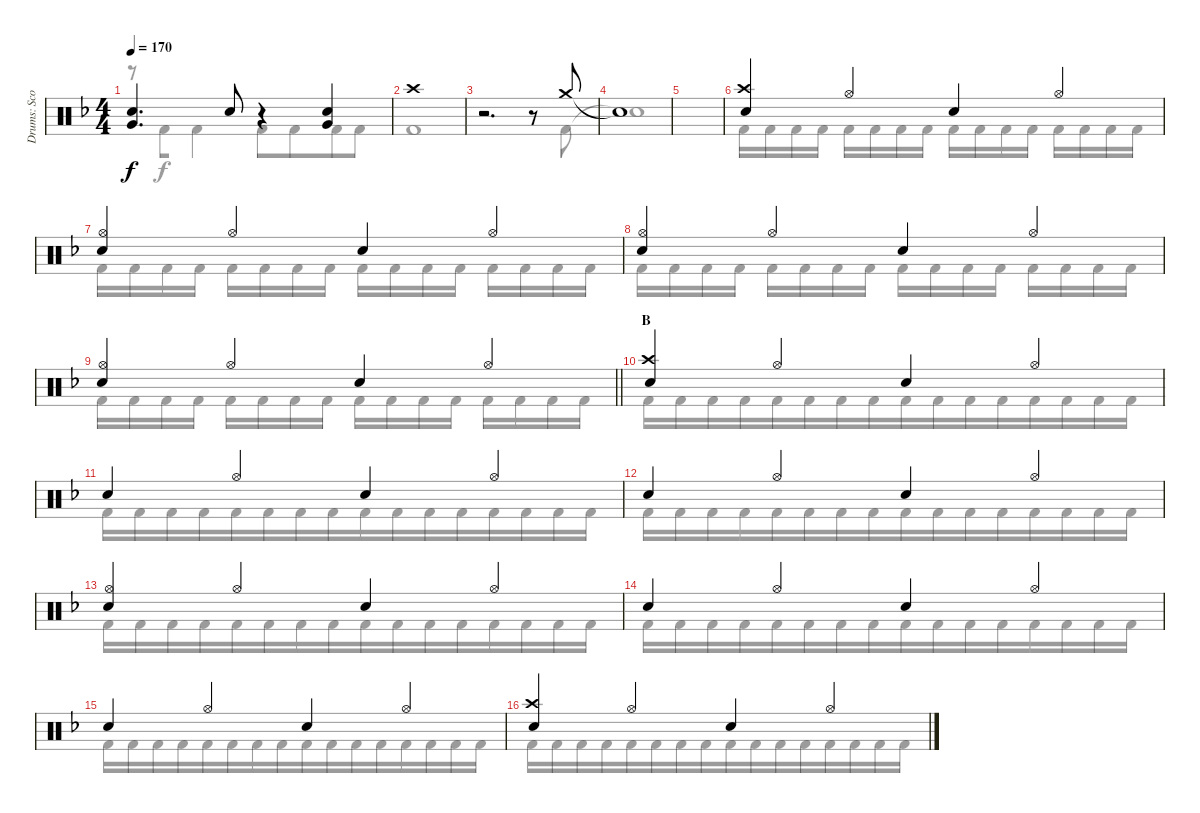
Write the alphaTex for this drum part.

\track ("Drums: Scott" "Drums: Sco") {instrument percussion}
\staff {score}
\articulation defaults
\voice
\ts (4 4)
\tempo 170
\clef neutral
\ks f
("Snare (hit) 2" "Very Low Tom (hit)").4{d dy f} "Snare (hit) 2".8 r.4 ("Snare (hit) 2" "Very Low Tom (hit)").4 |
"Crash high (hit)".1 |
r.2{d} r.8 "Crash medium (hit)".8 |
"Snare (hit)"{t}.1 |
|
("Crash high (hit)" "Snare (hit) 2").4 "Hi-Hat (open)".4 "Snare (hit) 2".4 "Hi-Hat (open)".4 |
("Hi-Hat (open)" "Snare (hit) 2").4 "Hi-Hat (open)".4 "Snare (hit) 2".4 "Hi-Hat (open)".4 |
("Hi-Hat (open)" "Snare (hit) 2").4 "Hi-Hat (open)".4 "Snare (hit) 2".4 "Hi-Hat (open)".4 |
\barLineRight lightlight
("Hi-Hat (open)" "Snare (hit) 2").4 "Hi-Hat (open)".4 "Snare (hit) 2".4 "Hi-Hat (open)".4 |
\section ("" "B")
("Crash high (hit)" "Snare (hit) 2").4 "Hi-Hat (open)".4 "Snare (hit) 2".4 "Hi-Hat (open)".4 |
"Snare (hit) 2".4 "Hi-Hat (open)".4 "Snare (hit) 2".4 "Hi-Hat (open)".4 |
"Snare (hit) 2".4 "Hi-Hat (open)".4 "Snare (hit) 2".4 "Hi-Hat (open)".4 |
("Hi-Hat (open)" "Snare (hit) 2").4 "Hi-Hat (open)".4 "Snare (hit) 2".4 "Hi-Hat (open)".4 |
"Snare (hit) 2".4 "Hi-Hat (open)".4 "Snare (hit) 2".4 "Hi-Hat (open)".4 |
"Snare (hit) 2".4 "Hi-Hat (open)".4 "Snare (hit) 2".4 "Hi-Hat (open)".4 |
("Crash high (hit)" "Snare (hit) 2").4 "Hi-Hat (open)".4 "Snare (hit) 2".4 "Hi-Hat (open)".4
\voice
\clef neutral
\ottava regular
\simile none
\ks f
r.8{dy f} "Kick (hit) 2".8{beam merge} "Kick (hit) 2".4 "Kick (hit) 2".8 "Kick (hit) 2".8{beam merge} "Kick (hit) 2".8 "Kick (hit) 2".8 |
"Kick (hit) 2".1 |
r.2{d} r.8 "Kick (hit) 2".8 |
"Snare (hit)"{t}.1 |
|
"Kick (hit) 2".16 "Kick (hit) 2".16{beam merge} "Kick (hit) 2".16 "Kick (hit) 2".16 "Kick (hit) 2".16 "Kick (hit) 2".16{beam merge} "Kick (hit) 2".16 "Kick (hit) 2".16 "Kick (hit) 2".16 "Kick (hit) 2".16{beam merge} "Kick (hit) 2".16 "Kick (hit) 2".16 "Kick (hit) 2".16 "Kick (hit) 2".16{beam merge} "Kick (hit) 2".16 "Kick (hit) 2".16 |
"Kick (hit) 2".16 "Kick (hit) 2".16{beam merge} "Kick (hit) 2".16 "Kick (hit) 2".16 "Kick (hit) 2".16 "Kick (hit) 2".16{beam merge} "Kick (hit) 2".16 "Kick (hit) 2".16 "Kick (hit) 2".16 "Kick (hit) 2".16{beam merge} "Kick (hit) 2".16 "Kick (hit) 2".16 "Kick (hit) 2".16 "Kick (hit) 2".16{beam merge} "Kick (hit) 2".16 "Kick (hit) 2".16 |
"Kick (hit) 2".16 "Kick (hit) 2".16{beam merge} "Kick (hit) 2".16 "Kick (hit) 2".16 "Kick (hit) 2".16 "Kick (hit) 2".16{beam merge} "Kick (hit) 2".16 "Kick (hit) 2".16 "Kick (hit) 2".16 "Kick (hit) 2".16{beam merge} "Kick (hit) 2".16 "Kick (hit) 2".16 "Kick (hit) 2".16 "Kick (hit) 2".16{beam merge} "Kick (hit) 2".16 "Kick (hit) 2".16 |
\barLineRight lightlight "Kick (hit) 2".16 "Kick (hit) 2".16{beam merge} "Kick (hit) 2".16 "Kick (hit) 2".16 "Kick (hit) 2".16 "Kick (hit) 2".16{beam merge} "Kick (hit) 2".16 "Kick (hit) 2".16 "Kick (hit) 2".16 "Kick (hit) 2".16{beam merge} "Kick (hit) 2".16 "Kick (hit) 2".16 "Kick (hit) 2".16 "Kick (hit) 2".16{beam merge} "Kick (hit) 2".16 "Kick (hit) 2".16
|
"Kick (hit) 2".16{beam merge} "Kick (hit) 2".16{beam merge} "Kick (hit) 2".16{beam merge} "Kick (hit) 2".16{beam merge} "Kick (hit) 2".16{beam merge} "Kick (hit) 2".16{beam merge} "Kick (hit) 2".16{beam merge} "Kick (hit) 2".16{beam merge} "Kick (hit) 2".16{beam merge} "Kick (hit) 2".16{beam merge} "Kick (hit) 2".16{beam merge} "Kick (hit) 2".16{beam merge} "Kick (hit) 2".16{beam merge} "Kick (hit) 2".16{beam merge} "Kick (hit) 2".16{beam merge} "Kick (hit) 2".16 |
"Kick (hit) 2".16{beam merge} "Kick (hit) 2".16{beam merge} "Kick (hit) 2".16{beam merge} "Kick (hit) 2".16{beam merge} "Kick (hit) 2".16{beam merge} "Kick (hit) 2".16{beam merge} "Kick (hit) 2".16{beam merge} "Kick (hit) 2".16{beam merge} "Kick (hit) 2".16{beam merge} "Kick (hit) 2".16{beam merge} "Kick (hit) 2".16{beam merge} "Kick (hit) 2".16{beam merge} "Kick (hit) 2".16{beam merge} "Kick (hit) 2".16{beam merge} "Kick (hit) 2".16{beam merge} "Kick (hit) 2".16 |
"Kick (hit) 2".16{beam merge} "Kick (hit) 2".16{beam merge} "Kick (hit) 2".16{beam merge} "Kick (hit) 2".16{beam merge} "Kick (hit) 2".16{beam merge} "Kick (hit) 2".16{beam merge} "Kick (hit) 2".16{beam merge} "Kick (hit) 2".16{beam merge} "Kick (hit) 2".16{beam merge} "Kick (hit) 2".16{beam merge} "Kick (hit) 2".16{beam merge} "Kick (hit) 2".16{beam merge} "Kick (hit) 2".16{beam merge} "Kick (hit) 2".16{beam merge} "Kick (hit) 2".16{beam merge} "Kick (hit) 2".16 |
"Kick (hit) 2".16{beam merge} "Kick (hit) 2".16{beam merge} "Kick (hit) 2".16{beam merge} "Kick (hit) 2".16{beam merge} "Kick (hit) 2".16{beam merge} "Kick (hit) 2".16{beam merge} "Kick (hit) 2".16{beam merge} "Kick (hit) 2".16{beam merge} "Kick (hit) 2".16{beam merge} "Kick (hit) 2".16{beam merge} "Kick (hit) 2".16{beam merge} "Kick (hit) 2".16{beam merge} "Kick (hit) 2".16{beam merge} "Kick (hit) 2".16{beam merge} "Kick (hit) 2".16{beam merge} "Kick (hit) 2".16 |
"Kick (hit) 2".16{beam merge} "Kick (hit) 2".16{beam merge} "Kick (hit) 2".16{beam merge} "Kick (hit) 2".16{beam merge} "Kick (hit) 2".16{beam merge} "Kick (hit) 2".16{beam merge} "Kick (hit) 2".16{beam merge} "Kick (hit) 2".16{beam merge} "Kick (hit) 2".16{beam merge} "Kick (hit) 2".16{beam merge} "Kick (hit) 2".16{beam merge} "Kick (hit) 2".16{beam merge} "Kick (hit) 2".16{beam merge} "Kick (hit) 2".16{beam merge} "Kick (hit) 2".16{beam merge} "Kick (hit) 2".16 |
"Kick (hit) 2".16{beam merge} "Kick (hit) 2".16{beam merge} "Kick (hit) 2".16{beam merge} "Kick (hit) 2".16{beam merge} "Kick (hit) 2".16{beam merge} "Kick (hit) 2".16{beam merge} "Kick (hit) 2".16{beam merge} "Kick (hit) 2".16{beam merge} "Kick (hit) 2".16{beam merge} "Kick (hit) 2".16{beam merge} "Kick (hit) 2".16{beam merge} "Kick (hit) 2".16{beam merge} "Kick (hit) 2".16{beam merge} "Kick (hit) 2".16{beam merge} "Kick (hit) 2".16{beam merge} "Kick (hit) 2".16 |
"Kick (hit) 2".16{beam merge} "Kick (hit) 2".16{beam merge} "Kick (hit) 2".16{beam merge} "Kick (hit) 2".16{beam merge} "Kick (hit) 2".16{beam merge} "Kick (hit) 2".16{beam merge} "Kick (hit) 2".16{beam merge} "Kick (hit) 2".16{beam merge} "Kick (hit) 2".16{beam merge} "Kick (hit) 2".16{beam merge} "Kick (hit) 2".16{beam merge} "Kick (hit) 2".16{beam merge} "Kick (hit) 2".16{beam merge} "Kick (hit) 2".16{beam merge} "Kick (hit) 2".16{beam merge} "Kick (hit) 2".16
